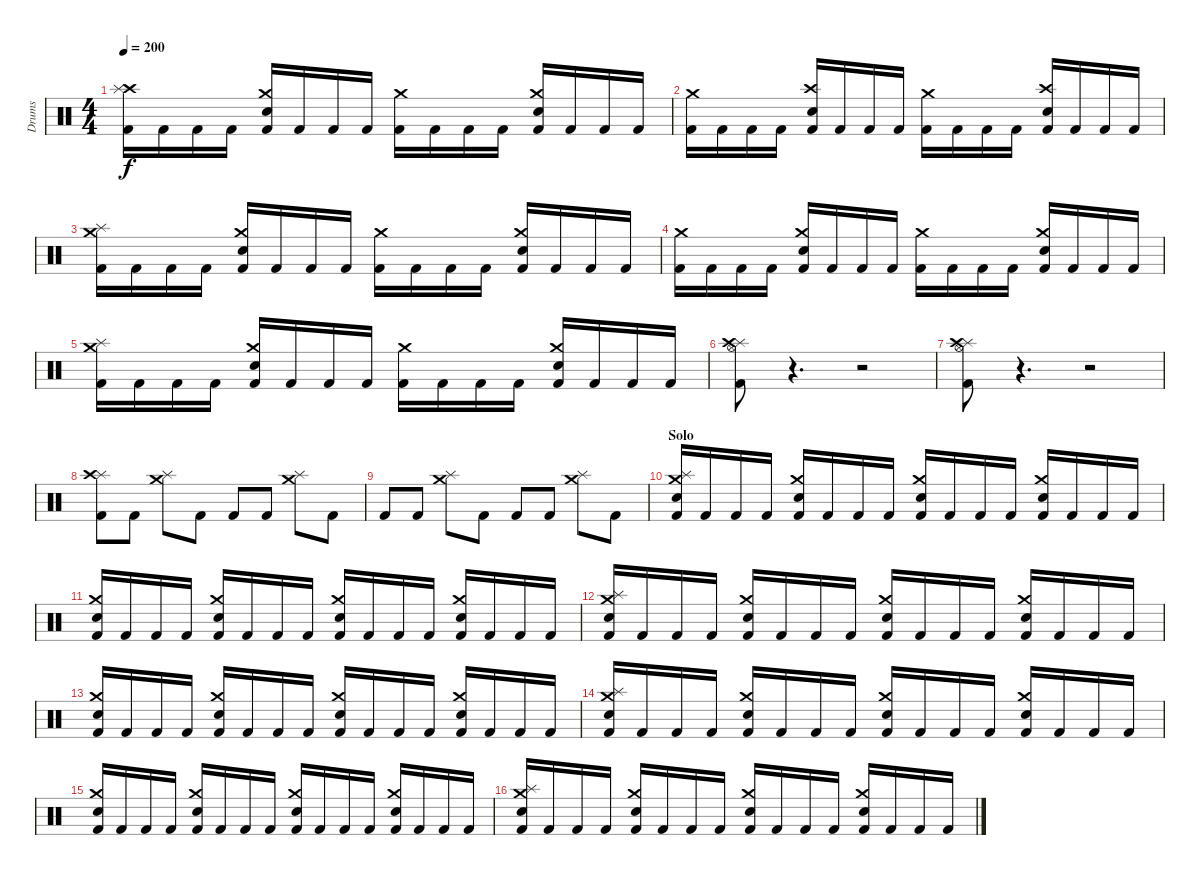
\track ("Drums" "Drums") {instrument percussion}
\staff {score}
\articulation defaults
\ts (4 4)
\tempo 200
\clef neutral
\ks c
("Kick (hit) 2" "Crash high (hit)" "Splash (hit)").16{dy f} "Kick (hit) 2".16 "Kick (hit) 2".16 "Kick (hit) 2".16 ("Kick (hit) 2" "Crash medium (hit)" "Snare (hit) 2").16 "Kick (hit) 2".16 "Kick (hit) 2".16 "Kick (hit) 2".16 ("Kick (hit) 2" "Crash medium (hit)").16 "Kick (hit) 2".16 "Kick (hit) 2".16 "Kick (hit) 2".16 ("Kick (hit) 2" "Crash medium (hit)" "Snare (hit) 2").16 "Kick (hit) 2".16 "Kick (hit) 2".16 "Kick (hit) 2".16 |
("Kick (hit) 2" "Crash medium (hit)").16 "Kick (hit) 2".16 "Kick (hit) 2".16 "Kick (hit) 2".16 ("Kick (hit) 2" "Snare (hit) 2" "Crash high (hit)").16 "Kick (hit) 2".16 "Kick (hit) 2".16 "Kick (hit) 2".16 ("Kick (hit) 2" "Crash medium (hit)").16 "Kick (hit) 2".16 "Kick (hit) 2".16 "Kick (hit) 2".16 ("Kick (hit) 2" "Snare (hit) 2" "Crash high (hit)").16 "Kick (hit) 2".16 "Kick (hit) 2".16 "Kick (hit) 2".16 |
("Kick (hit) 2" "Crash medium (hit)" "Splash (hit)").16 "Kick (hit) 2".16 "Kick (hit) 2".16 "Kick (hit) 2".16 ("Kick (hit) 2" "Crash medium (hit)" "Snare (hit) 2").16 "Kick (hit) 2".16 "Kick (hit) 2".16 "Kick (hit) 2".16 ("Kick (hit) 2" "Crash medium (hit)").16 "Kick (hit) 2".16 "Kick (hit) 2".16 "Kick (hit) 2".16 ("Kick (hit) 2" "Crash medium (hit)" "Snare (hit) 2").16 "Kick (hit) 2".16 "Kick (hit) 2".16 "Kick (hit) 2".16 |
("Kick (hit) 2" "Crash medium (hit)").16 "Kick (hit) 2".16 "Kick (hit) 2".16 "Kick (hit) 2".16 ("Kick (hit) 2" "Crash medium (hit)" "Snare (hit) 2").16 "Kick (hit) 2".16 "Kick (hit) 2".16 "Kick (hit) 2".16 ("Kick (hit) 2" "Crash medium (hit)").16 "Kick (hit) 2".16 "Kick (hit) 2".16 "Kick (hit) 2".16 ("Kick (hit) 2" "Crash medium (hit)" "Snare (hit) 2").16 "Kick (hit) 2".16 "Kick (hit) 2".16 "Kick (hit) 2".16 |
("Kick (hit) 2" "Crash medium (hit)" "Splash (hit)").16 "Kick (hit) 2".16 "Kick (hit) 2".16 "Kick (hit) 2".16 ("Kick (hit) 2" "Crash medium (hit)" "Snare (hit) 2").16 "Kick (hit) 2".16 "Kick (hit) 2".16 "Kick (hit) 2".16 ("Kick (hit) 2" "Crash medium (hit)").16 "Kick (hit) 2".16 "Kick (hit) 2".16 "Kick (hit) 2".16 ("Kick (hit) 2" "Crash medium (hit)" "Snare (hit) 2").16 "Kick (hit) 2".16 "Kick (hit) 2".16 "Kick (hit) 2".16 |
("Kick (hit) 2" "Hi-Hat (open)" "Splash (hit)" "Crash high (hit)").8 r.4{d} r.2 |
("Kick (hit) 2" "Hi-Hat (open)" "Splash (hit)" "Crash high (hit)").8 r.4{d} r.2 |
("Kick (hit) 2" "Splash (hit)" "Crash high (hit)").8 "Kick (hit) 2".8 ("Splash (hit)" "Crash medium (hit)").8 "Kick (hit) 2".8 "Kick (hit) 2".8 "Kick (hit) 2".8 ("Splash (hit)" "Crash medium (hit)").8 "Kick (hit) 2".8 |
"Kick (hit) 2".8 "Kick (hit) 2".8 ("Splash (hit)" "Crash medium (hit)").8 "Kick (hit) 2".8 "Kick (hit) 2".8 "Kick (hit) 2".8 ("Splash (hit)" "Crash medium (hit)").8 "Kick (hit) 2".8 |
\section ("" "Solo")
("Kick (hit) 2" "Crash medium (hit)" "Snare (hit) 2" "Splash (hit)").16 "Kick (hit) 2".16 "Kick (hit) 2".16 "Kick (hit) 2".16 ("Kick (hit) 2" "Crash medium (hit)" "Snare (hit) 2").16 "Kick (hit) 2".16 "Kick (hit) 2".16 "Kick (hit) 2".16 ("Kick (hit) 2" "Crash medium (hit)" "Snare (hit) 2").16 "Kick (hit) 2".16 "Kick (hit) 2".16 "Kick (hit) 2".16 ("Kick (hit) 2" "Crash medium (hit)" "Snare (hit) 2").16 "Kick (hit) 2".16 "Kick (hit) 2".16 "Kick (hit) 2".16 |
("Kick (hit) 2" "Crash medium (hit)" "Snare (hit) 2").16 "Kick (hit) 2".16 "Kick (hit) 2".16 "Kick (hit) 2".16 ("Kick (hit) 2" "Crash medium (hit)" "Snare (hit) 2").16 "Kick (hit) 2".16 "Kick (hit) 2".16 "Kick (hit) 2".16 ("Kick (hit) 2" "Crash medium (hit)" "Snare (hit) 2").16 "Kick (hit) 2".16 "Kick (hit) 2".16 "Kick (hit) 2".16 ("Kick (hit) 2" "Crash medium (hit)" "Snare (hit) 2").16 "Kick (hit) 2".16 "Kick (hit) 2".16 "Kick (hit) 2".16 |
("Kick (hit) 2" "Crash medium (hit)" "Snare (hit) 2" "Splash (hit)").16 "Kick (hit) 2".16 "Kick (hit) 2".16 "Kick (hit) 2".16 ("Kick (hit) 2" "Crash medium (hit)" "Snare (hit) 2").16 "Kick (hit) 2".16 "Kick (hit) 2".16 "Kick (hit) 2".16 ("Kick (hit) 2" "Crash medium (hit)" "Snare (hit) 2").16 "Kick (hit) 2".16 "Kick (hit) 2".16 "Kick (hit) 2".16 ("Kick (hit) 2" "Crash medium (hit)" "Snare (hit) 2").16 "Kick (hit) 2".16 "Kick (hit) 2".16 "Kick (hit) 2".16 |
("Kick (hit) 2" "Crash medium (hit)" "Snare (hit) 2").16 "Kick (hit) 2".16 "Kick (hit) 2".16 "Kick (hit) 2".16 ("Kick (hit) 2" "Crash medium (hit)" "Snare (hit) 2").16 "Kick (hit) 2".16 "Kick (hit) 2".16 "Kick (hit) 2".16 ("Kick (hit) 2" "Crash medium (hit)" "Snare (hit) 2").16 "Kick (hit) 2".16 "Kick (hit) 2".16 "Kick (hit) 2".16 ("Kick (hit) 2" "Crash medium (hit)" "Snare (hit) 2").16 "Kick (hit) 2".16 "Kick (hit) 2".16 "Kick (hit) 2".16 |
("Kick (hit) 2" "Crash medium (hit)" "Snare (hit) 2" "Splash (hit)").16 "Kick (hit) 2".16 "Kick (hit) 2".16 "Kick (hit) 2".16 ("Kick (hit) 2" "Crash medium (hit)" "Snare (hit) 2").16 "Kick (hit) 2".16 "Kick (hit) 2".16 "Kick (hit) 2".16 ("Kick (hit) 2" "Crash medium (hit)" "Snare (hit) 2").16 "Kick (hit) 2".16 "Kick (hit) 2".16 "Kick (hit) 2".16 ("Kick (hit) 2" "Crash medium (hit)" "Snare (hit) 2").16 "Kick (hit) 2".16 "Kick (hit) 2".16 "Kick (hit) 2".16 |
("Kick (hit) 2" "Crash medium (hit)" "Snare (hit) 2").16 "Kick (hit) 2".16 "Kick (hit) 2".16 "Kick (hit) 2".16 ("Kick (hit) 2" "Crash medium (hit)" "Snare (hit) 2").16 "Kick (hit) 2".16 "Kick (hit) 2".16 "Kick (hit) 2".16 ("Kick (hit) 2" "Crash medium (hit)" "Snare (hit) 2").16 "Kick (hit) 2".16 "Kick (hit) 2".16 "Kick (hit) 2".16 ("Kick (hit) 2" "Crash medium (hit)" "Snare (hit) 2").16 "Kick (hit) 2".16 "Kick (hit) 2".16 "Kick (hit) 2".16 |
("Kick (hit) 2" "Crash medium (hit)" "Snare (hit) 2" "Splash (hit)").16 "Kick (hit) 2".16 "Kick (hit) 2".16 "Kick (hit) 2".16 ("Kick (hit) 2" "Crash medium (hit)" "Snare (hit) 2").16 "Kick (hit) 2".16 "Kick (hit) 2".16 "Kick (hit) 2".16 ("Kick (hit) 2" "Crash medium (hit)" "Snare (hit) 2").16 "Kick (hit) 2".16 "Kick (hit) 2".16 "Kick (hit) 2".16 ("Kick (hit) 2" "Crash medium (hit)" "Snare (hit) 2").16 "Kick (hit) 2".16 "Kick (hit) 2".16 "Kick (hit) 2".16
